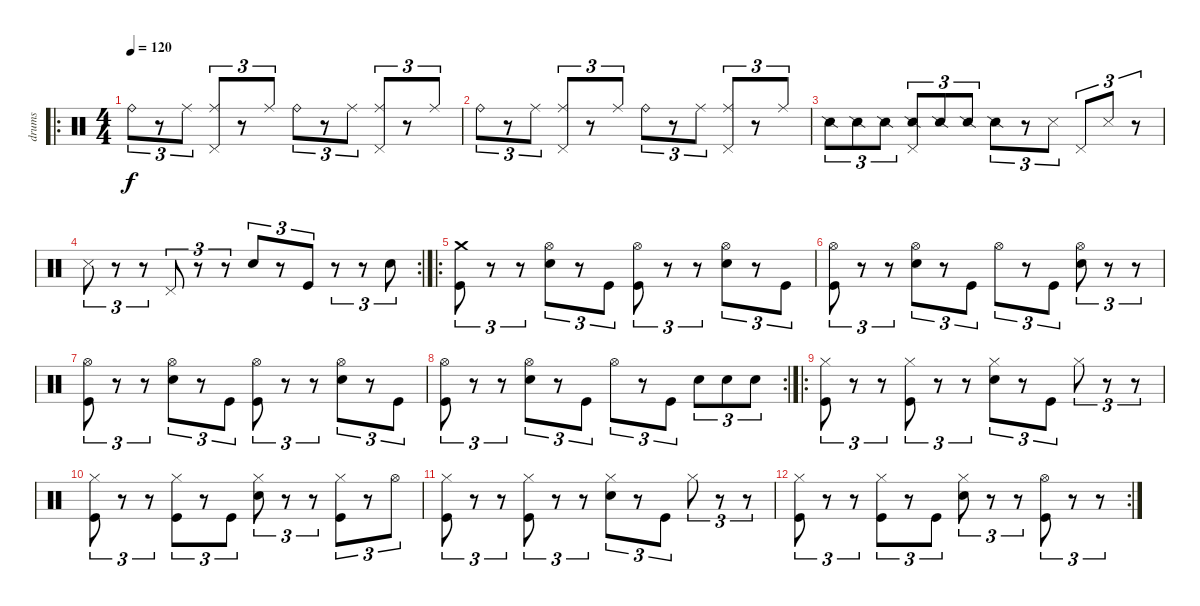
\track ("drums" "drums") {instrument percussion}
\staff {score}
\articulation defaults
\ro
\ts (4 4)
\tempo 120
\clef neutral
\ks c "Ride (bell)".8{tu (3 2) dy f}
r.8{tu (3 2)} "Ride (middle)".8{tu (3 2)} ("Ride (middle)" "Pedal Hi-Hat (hit)").8{tu (3 2)} r.8{tu (3 2)} "Ride (middle)".8{tu (3 2)} "Ride (bell)".8{tu (3 2)} r.8{tu (3 2)} "Ride (middle)".8{tu (3 2)} ("Ride (middle)" "Pedal Hi-Hat (hit)").8{tu (3 2)} r.8{tu (3 2)} "Ride (middle)".8{tu (3 2)} |
"Ride (bell)".8{tu (3 2)} r.8{tu (3 2)} "Ride (middle)".8{tu (3 2)} ("Ride (middle)" "Pedal Hi-Hat (hit)").8{tu (3 2)} r.8{tu (3 2)} "Ride (middle)".8{tu (3 2)} "Ride (bell)".8{tu (3 2)} r.8{tu (3 2)} "Ride (middle)".8{tu (3 2)} ("Ride (middle)" "Pedal Hi-Hat (hit)").8{tu (3 2)} r.8{tu (3 2)} "Ride (middle)".8{tu (3 2)} |
"Snare (side stick) 2".8{tu (3 2)} "Snare (side stick) 2".8{tu (3 2)} "Snare (side stick) 2".8{tu (3 2)} ("Snare (side stick) 2" "Pedal Hi-Hat (hit)").8{tu (3 2)} "Snare (side stick) 2".8{tu (3 2)} "Snare (side stick) 2".8{tu (3 2)} "Snare (side stick) 2".8{tu (3 2)} r.8{tu (3 2)} "Snare (side stick) 3".8{tu (3 2)} "Pedal Hi-Hat (hit)".8{tu (3 2)} "Snare (side stick) 3".8{tu (3 2)} r.8{tu (3 2)} |
\rc 2 "Snare (side stick) 3".8{tu (3 2)}
r.8{tu (3 2)} r.8{tu (3 2)} "Pedal Hi-Hat (hit)".8{tu (3 2)} r.8{tu (3 2)} r.8{tu (3 2)} "Electric Snare (hit)".8{tu (3 2)} r.8{tu (3 2)} "Kick (hit)".8{tu (3 2)} r.8{tu (3 2)} r.8{tu (3 2)} "Electric Snare (hit)".8{tu (3 2)} |
\ro
("Crash medium (hit)" "Kick (hit)").8{tu (3 2)} r.8{tu (3 2)} r.8{tu (3 2)} ("Hi-Hat (open)" "Electric Snare (hit)").8{tu (3 2)} r.8{tu (3 2)} "Kick (hit)".8{tu (3 2)} ("Hi-Hat (open)" "Kick (hit)").8{tu (3 2)} r.8{tu (3 2)} r.8{tu (3 2)} ("Hi-Hat (open)" "Electric Snare (hit)").8{tu (3 2)} r.8{tu (3 2)} "Kick (hit)".8{tu (3 2)} |
("Hi-Hat (open)" "Kick (hit)").8{tu (3 2)} r.8{tu (3 2)} r.8{tu (3 2)} ("Hi-Hat (open)" "Electric Snare (hit)").8{tu (3 2)} r.8{tu (3 2)} "Kick (hit)".8{tu (3 2)} "Hi-Hat (open)".8{tu (3 2)} r.8{tu (3 2)} "Kick (hit)".8{tu (3 2)} ("Hi-Hat (open)" "Electric Snare (hit)").8{tu (3 2)} r.8{tu (3 2)} r.8{tu (3 2)} |
("Hi-Hat (open)" "Kick (hit)").8{tu (3 2)} r.8{tu (3 2)} r.8{tu (3 2)} ("Hi-Hat (open)" "Electric Snare (hit)").8{tu (3 2)} r.8{tu (3 2)} "Kick (hit)".8{tu (3 2)} ("Hi-Hat (open)" "Kick (hit)").8{tu (3 2)} r.8{tu (3 2)} r.8{tu (3 2)} ("Hi-Hat (open)" "Electric Snare (hit)").8{tu (3 2)} r.8{tu (3 2)} "Kick (hit)".8{tu (3 2)} |
\rc 2
("Hi-Hat (open)" "Kick (hit)").8{tu (3 2)} r.8{tu (3 2)} r.8{tu (3 2)} ("Hi-Hat (open)" "Electric Snare (hit)").8{tu (3 2)} r.8{tu (3 2)} "Kick (hit)".8{tu (3 2)} "Hi-Hat (open)".8{tu (3 2)} r.8{tu (3 2)} "Kick (hit)".8{tu (3 2)} "Electric Snare (hit)".8{tu (3 2)} "Electric Snare (hit)".8{tu (3 2)} "Electric Snare (hit)".8{tu (3 2)} |
\ro
("Hi-Hat (closed)" "Kick (hit)").8{tu (3 2)} r.8{tu (3 2)} r.8{tu (3 2)} ("Hi-Hat (closed)" "Kick (hit)").8{tu (3 2)} r.8{tu (3 2)} r.8{tu (3 2)} ("Hi-Hat (closed)" "Electric Snare (hit)").8{tu (3 2)} r.8{tu (3 2)} "Kick (hit)".8{tu (3 2)} "Hi-Hat (closed)".8{tu (3 2)} r.8{tu (3 2)} r.8{tu (3 2)} |
("Hi-Hat (closed)" "Kick (hit)").8{tu (3 2)} r.8{tu (3 2)} r.8{tu (3 2)} ("Hi-Hat (closed)" "Kick (hit)").8{tu (3 2)} r.8{tu (3 2)} "Kick (hit)".8{tu (3 2)} ("Hi-Hat (closed)" "Electric Snare (hit)").8{tu (3 2)} r.8{tu (3 2)} r.8{tu (3 2)} ("Hi-Hat (closed)" "Kick (hit)").8{tu (3 2)} r.8{tu (3 2)} "Hi-Hat (open)".8{tu (3 2)} |
("Hi-Hat (closed)" "Kick (hit)").8{tu (3 2)} r.8{tu (3 2)} r.8{tu (3 2)} ("Hi-Hat (closed)" "Kick (hit)").8{tu (3 2)} r.8{tu (3 2)} r.8{tu (3 2)} ("Hi-Hat (closed)" "Electric Snare (hit)").8{tu (3 2)} r.8{tu (3 2)} "Kick (hit)".8{tu (3 2)} "Hi-Hat (closed)".8{tu (3 2)} r.8{tu (3 2)} r.8{tu (3 2)} |
\rc 2
("Hi-Hat (closed)" "Kick (hit)").8{tu (3 2)} r.8{tu (3 2)} r.8{tu (3 2)} ("Hi-Hat (closed)" "Kick (hit)").8{tu (3 2)} r.8{tu (3 2)} "Kick (hit)".8{tu (3 2)} ("Hi-Hat (closed)" "Electric Snare (hit)").8{tu (3 2)} r.8{tu (3 2)} r.8{tu (3 2)} ("Hi-Hat (open)" "Kick (hit)").8{tu (3 2)} r.8{tu (3 2)} r.8{tu (3 2)}
